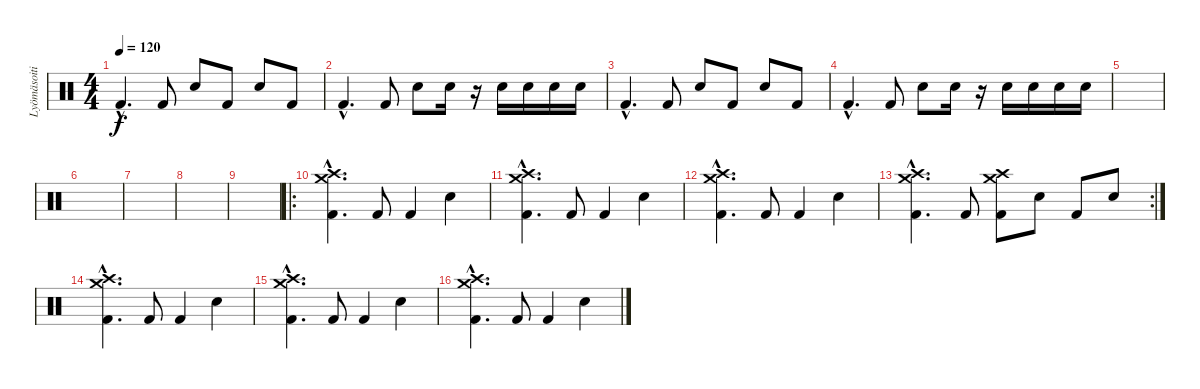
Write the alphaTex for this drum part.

\track ("Lyömäsoitin" "Lyömäsoiti") {instrument percussion}
\staff {score}
\articulation defaults
\ts (4 4)
\tempo 120
\clef neutral
\ks c "Kick (hit) 2"{hac}.4{d dy f} "Kick (hit) 2".8 "Snare (hit) 2".8 "Kick (hit) 2".8 "Snare (hit) 2".8 "Kick (hit) 2".8
|
"Kick (hit) 2"{hac}.4{d} "Kick (hit) 2".8 "Snare (hit) 2".8 "Snare (hit) 2".16 r.16 "Snare (hit) 2".16 "Snare (hit) 2".16 "Snare (hit) 2".16 "Snare (hit) 2".16 |
"Kick (hit) 2"{hac}.4{d} "Kick (hit) 2".8 "Snare (hit) 2".8 "Kick (hit) 2".8 "Snare (hit) 2".8 "Kick (hit) 2".8 |
"Kick (hit) 2"{hac}.4{d} "Kick (hit) 2".8 "Snare (hit) 2".8 "Snare (hit) 2".16 r.16 "Snare (hit) 2".16 "Snare (hit) 2".16 "Snare (hit) 2".16 "Snare (hit) 2".16 |
|
|
|
|
|
\ro
("Kick (hit) 2"{hac} "Crash high (hit)"{hac} "Crash medium (hit)"{hac}).4{d} "Kick (hit) 2".8 "Kick (hit) 2".4 "Snare (hit) 2".4 |
("Kick (hit) 2"{hac} "Crash medium (hit)"{hac} "Crash high (hit)"{hac}).4{d} "Kick (hit) 2".8 "Kick (hit) 2".4 "Snare (hit) 2".4 |
("Kick (hit) 2"{hac} "Crash medium (hit)"{hac} "Crash high (hit)"{hac}).4{d} "Kick (hit) 2".8 "Kick (hit) 2".4 "Snare (hit) 2".4 |
\rc 2
("Kick (hit) 2"{hac} "Crash medium (hit)"{hac} "Crash high (hit)"{hac}).4{d} "Kick (hit) 2".8 ("Kick (hit) 2" "Crash medium (hit)" "Crash high (hit)").8 "Snare (hit) 2".8 "Kick (hit) 2".8 "Snare (hit) 2".8 |
("Kick (hit) 2"{hac} "Crash high (hit)"{hac} "Crash medium (hit)"{hac}).4{d} "Kick (hit) 2".8 "Kick (hit) 2".4 "Snare (hit) 2".4 |
("Kick (hit) 2"{hac} "Crash medium (hit)"{hac} "Crash high (hit)"{hac}).4{d} "Kick (hit) 2".8 "Kick (hit) 2".4 "Snare (hit) 2".4 |
("Kick (hit) 2"{hac} "Crash medium (hit)"{hac} "Crash high (hit)"{hac}).4{d} "Kick (hit) 2".8 "Kick (hit) 2".4 "Snare (hit) 2".4
